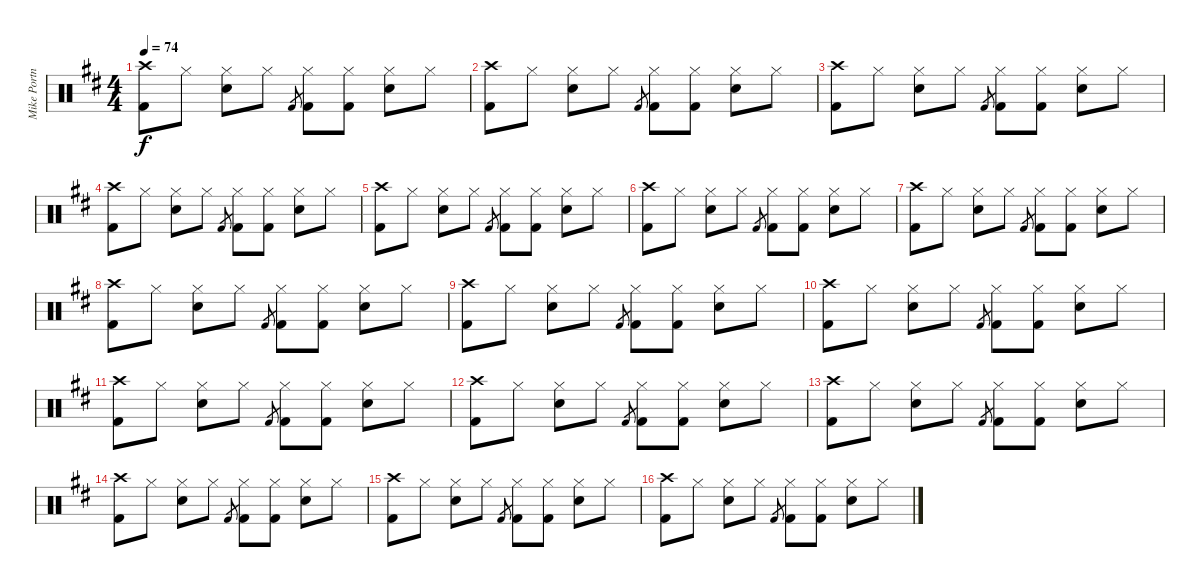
\track ("Mike Portnoy" "Mike Portn") {instrument percussion}
\staff {score}
\articulation defaults
\ts (4 4)
\tempo 74
\clef neutral
\ks bminor
("Crash high (hit)" "Kick (hit) 2").8{dy f} "Hi-Hat (closed)".8 ("Hi-Hat (closed)" "Snare (hit) 2").8 "Hi-Hat (closed)".8 "Kick (hit) 2".8{gr} ("Hi-Hat (closed)" "Kick (hit) 2").8 ("Hi-Hat (closed)" "Kick (hit) 2").8 ("Hi-Hat (closed)" "Snare (hit) 2").8 "Hi-Hat (closed)".8 |
("Crash high (hit)" "Kick (hit) 2").8 "Hi-Hat (closed)".8 ("Hi-Hat (closed)" "Snare (hit) 2").8 "Hi-Hat (closed)".8 "Kick (hit) 2".8{gr} ("Hi-Hat (closed)" "Kick (hit) 2").8 ("Hi-Hat (closed)" "Kick (hit) 2").8 ("Hi-Hat (closed)" "Snare (hit) 2").8 "Hi-Hat (closed)".8 |
("Crash high (hit)" "Kick (hit) 2").8 "Hi-Hat (closed)".8 ("Hi-Hat (closed)" "Snare (hit) 2").8 "Hi-Hat (closed)".8 "Kick (hit) 2".8{gr} ("Hi-Hat (closed)" "Kick (hit) 2").8 ("Hi-Hat (closed)" "Kick (hit) 2").8 ("Hi-Hat (closed)" "Snare (hit) 2").8 "Hi-Hat (closed)".8 |
("Crash high (hit)" "Kick (hit) 2").8 "Hi-Hat (closed)".8 ("Hi-Hat (closed)" "Snare (hit) 2").8 "Hi-Hat (closed)".8 "Kick (hit) 2".8{gr} ("Hi-Hat (closed)" "Kick (hit) 2").8 ("Hi-Hat (closed)" "Kick (hit) 2").8 ("Hi-Hat (closed)" "Snare (hit) 2").8 "Hi-Hat (closed)".8 |
("Crash high (hit)" "Kick (hit) 2").8 "Hi-Hat (closed)".8 ("Hi-Hat (closed)" "Snare (hit) 2").8 "Hi-Hat (closed)".8 "Kick (hit) 2".8{gr} ("Hi-Hat (closed)" "Kick (hit) 2").8 ("Hi-Hat (closed)" "Kick (hit) 2").8 ("Hi-Hat (closed)" "Snare (hit) 2").8 "Hi-Hat (closed)".8 |
("Crash high (hit)" "Kick (hit) 2").8 "Hi-Hat (closed)".8 ("Hi-Hat (closed)" "Snare (hit) 2").8 "Hi-Hat (closed)".8 "Kick (hit) 2".8{gr} ("Hi-Hat (closed)" "Kick (hit) 2").8 ("Hi-Hat (closed)" "Kick (hit) 2").8 ("Hi-Hat (closed)" "Snare (hit) 2").8 "Hi-Hat (closed)".8 |
("Crash high (hit)" "Kick (hit) 2").8 "Hi-Hat (closed)".8 ("Hi-Hat (closed)" "Snare (hit) 2").8 "Hi-Hat (closed)".8 "Kick (hit) 2".8{gr} ("Hi-Hat (closed)" "Kick (hit) 2").8 ("Hi-Hat (closed)" "Kick (hit) 2").8 ("Hi-Hat (closed)" "Snare (hit) 2").8 "Hi-Hat (closed)".8 |
("Crash high (hit)" "Kick (hit) 2").8 "Hi-Hat (closed)".8 ("Hi-Hat (closed)" "Snare (hit) 2").8 "Hi-Hat (closed)".8 "Kick (hit) 2".8{gr} ("Hi-Hat (closed)" "Kick (hit) 2").8 ("Hi-Hat (closed)" "Kick (hit) 2").8 ("Hi-Hat (closed)" "Snare (hit) 2").8 "Hi-Hat (closed)".8 |
("Crash high (hit)" "Kick (hit) 2").8 "Hi-Hat (closed)".8 ("Hi-Hat (closed)" "Snare (hit) 2").8 "Hi-Hat (closed)".8 "Kick (hit) 2".8{gr} ("Hi-Hat (closed)" "Kick (hit) 2").8 ("Hi-Hat (closed)" "Kick (hit) 2").8 ("Hi-Hat (closed)" "Snare (hit) 2").8 "Hi-Hat (closed)".8 |
("Crash high (hit)" "Kick (hit) 2").8{volume 8} "Hi-Hat (closed)".8 ("Hi-Hat (closed)" "Snare (hit) 2").8 "Hi-Hat (closed)".8 "Kick (hit) 2".8{gr} ("Hi-Hat (closed)" "Kick (hit) 2").8 ("Hi-Hat (closed)" "Kick (hit) 2").8 ("Hi-Hat (closed)" "Snare (hit) 2").8 "Hi-Hat (closed)".8 |
("Crash high (hit)" "Kick (hit) 2").8 "Hi-Hat (closed)".8 ("Hi-Hat (closed)" "Snare (hit) 2").8 "Hi-Hat (closed)".8 "Kick (hit) 2".8{gr} ("Hi-Hat (closed)" "Kick (hit) 2").8 ("Hi-Hat (closed)" "Kick (hit) 2").8 ("Hi-Hat (closed)" "Snare (hit) 2").8 "Hi-Hat (closed)".8 |
("Crash high (hit)" "Kick (hit) 2").8 "Hi-Hat (closed)".8 ("Hi-Hat (closed)" "Snare (hit) 2").8 "Hi-Hat (closed)".8 "Kick (hit) 2".8{gr} ("Hi-Hat (closed)" "Kick (hit) 2").8 ("Hi-Hat (closed)" "Kick (hit) 2").8 ("Hi-Hat (closed)" "Snare (hit) 2").8 "Hi-Hat (closed)".8 |
("Crash high (hit)" "Kick (hit) 2").8 "Hi-Hat (closed)".8 ("Hi-Hat (closed)" "Snare (hit) 2").8 "Hi-Hat (closed)".8 "Kick (hit) 2".8{gr} ("Hi-Hat (closed)" "Kick (hit) 2").8 ("Hi-Hat (closed)" "Kick (hit) 2").8 ("Hi-Hat (closed)" "Snare (hit) 2").8 "Hi-Hat (closed)".8 |
("Crash high (hit)" "Kick (hit) 2").8 "Hi-Hat (closed)".8{volume 0} ("Hi-Hat (closed)" "Snare (hit) 2").8 "Hi-Hat (closed)".8 "Kick (hit) 2".8{gr} ("Hi-Hat (closed)" "Kick (hit) 2").8 ("Hi-Hat (closed)" "Kick (hit) 2").8 ("Hi-Hat (closed)" "Snare (hit) 2").8 "Hi-Hat (closed)".8 |
("Crash high (hit)" "Kick (hit) 2").8 "Hi-Hat (closed)".8 ("Hi-Hat (closed)" "Snare (hit) 2").8 "Hi-Hat (closed)".8 "Kick (hit) 2".8{gr} ("Hi-Hat (closed)" "Kick (hit) 2").8 ("Hi-Hat (closed)" "Kick (hit) 2").8 ("Hi-Hat (closed)" "Snare (hit) 2").8 "Hi-Hat (closed)".8 |
("Crash high (hit)" "Kick (hit) 2").8 "Hi-Hat (closed)".8 ("Hi-Hat (closed)" "Snare (hit) 2").8 "Hi-Hat (closed)".8 "Kick (hit) 2".8{gr} ("Hi-Hat (closed)" "Kick (hit) 2").8 ("Hi-Hat (closed)" "Kick (hit) 2").8 ("Hi-Hat (closed)" "Snare (hit) 2").8 "Hi-Hat (closed)".8
